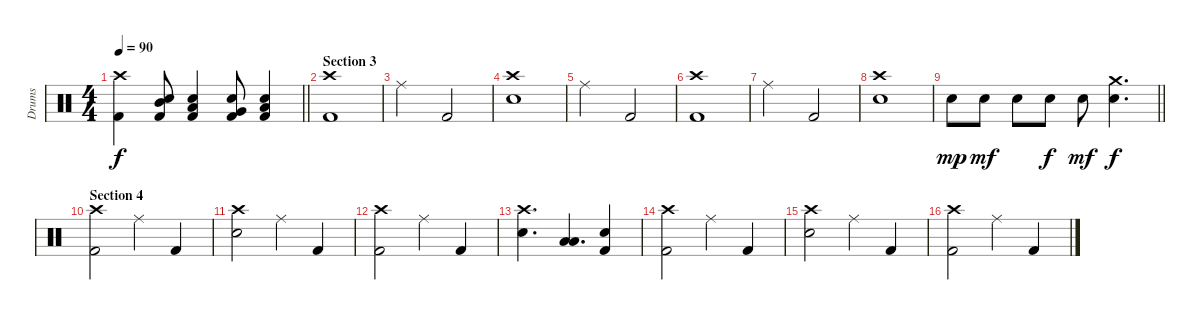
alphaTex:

\track ("Drums" "Drums") {instrument percussion}
\staff {score}
\articulation defaults
\ts (4 4)
\tempo 90
\clef neutral
\barLineRight lightlight
\ks c
("Crash high (hit)" "Kick (hit) 2").4{dy f} ("Mid Tom (hit)" "Electric Snare (hit)" "Kick (hit) 2").8 ("Low Tom (hit)" "Electric Snare (hit)" "Kick (hit) 2").4 ("Very Low Tom (hit)" "Electric Snare (hit)" "Kick (hit) 2").8 ("Low Floor Tom (hit)" "Electric Snare (hit)" "Kick (hit) 2").4 |
\section ("" "Section 3")
("Crash high (hit)" "Kick (hit) 2").1 |
"Ride (middle)".2 "Kick (hit) 2".2 |
("Crash high (hit)" "Electric Snare (hit)").1 |
"Ride (middle)".2 "Kick (hit) 2".2 |
("Crash high (hit)" "Kick (hit) 2").1 |
"Ride (middle)".2 "Kick (hit) 2".2 |
("Crash high (hit)" "Electric Snare (hit)").1 |
\barLineRight lightlight "Electric Snare (hit)".8{dy mp} "Electric Snare (hit)".8{dy mf} "Electric Snare (hit)".8 "Electric Snare (hit)".8{dy f} "Electric Snare (hit)".8{dy mf}
("Crash medium (hit)" "Electric Snare (hit)").4{d dy f} |
\section ("" "Section 4")
("Crash high (hit)" "Kick (hit) 2").2 "Ride (middle)".4 "Kick (hit) 2".4 |
("Crash high (hit)" "Electric Snare (hit)").2 "Ride (middle)".4 "Kick (hit) 2".4 |
("Crash high (hit)" "Kick (hit) 2").2 "Ride (middle)".4 "Kick (hit) 2".4 |
("Crash high (hit)" "Electric Snare (hit)").4{d} ("Low Tom (hit)" "Low Tom (hit)").4{d bu 60} ("Electric Snare (hit)" "Kick (hit) 2").4 |
("Crash high (hit)" "Kick (hit) 2").2 "Ride (middle)".4 "Kick (hit) 2".4 |
("Crash high (hit)" "Electric Snare (hit)").2 "Ride (middle)".4 "Kick (hit) 2".4 |
("Crash high (hit)" "Kick (hit) 2").2 "Ride (middle)".4 "Kick (hit) 2".4
